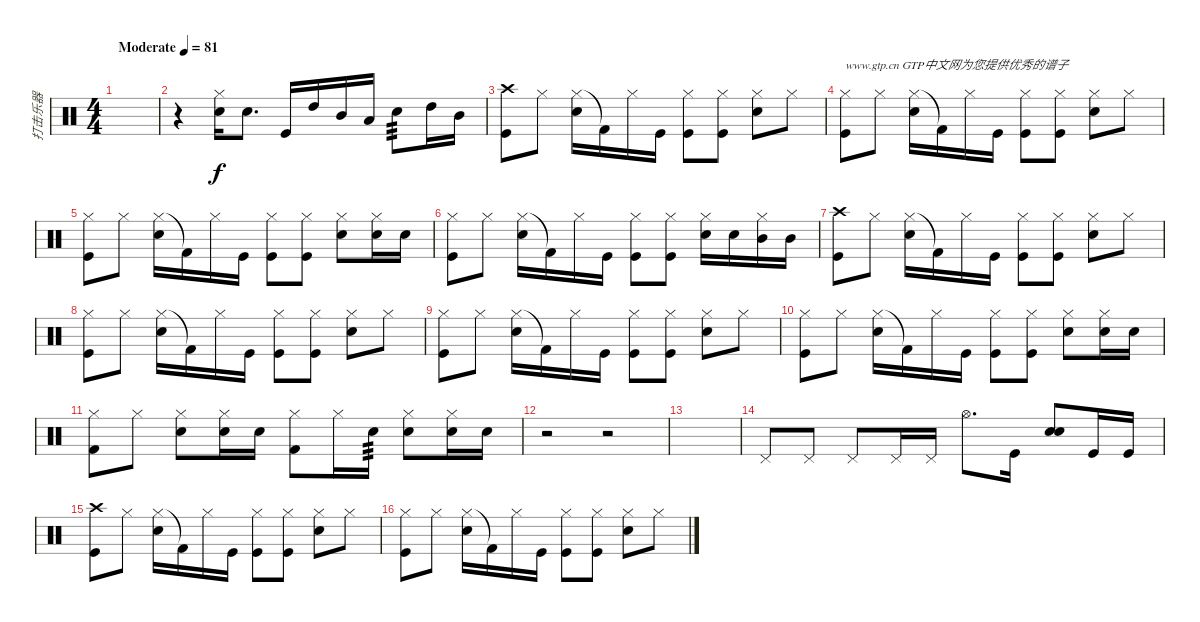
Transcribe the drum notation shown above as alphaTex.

\track ("打击乐器" "打击乐器") {instrument percussion}
\staff {score}
\articulation defaults
\ts (4 4)
\tempo (81 "Moderate")
\clef neutral
\ks c
|
r.4 ("Hi-Hat (closed)" "Electric Snare (hit)").16 "Electric Snare (hit)".8{d} "Kick (hit)".16 "High Tom (hit)".16 "Mid Tom (hit)".16 "Low Tom (hit)".16 "Electric Snare (hit)".8{tp 3} "High Tom (hit)".16 "Mid Tom (hit)".16 |
("Crash high (hit)" "Kick (hit)").8 "Hi-Hat (closed)".8 ("Hi-Hat (closed)" "Electric Snare (hit)").16 "Kick (hit) 2"{t}.16 "Hi-Hat (closed)".16 "Kick (hit)".16 ("Hi-Hat (closed)" "Kick (hit)").8 ("Hi-Hat (closed)" "Kick (hit)").8 ("Hi-Hat (closed)" "Electric Snare (hit)").8 "Hi-Hat (closed)".8 |
("Hi-Hat (closed)" "Kick (hit)").8{txt "www.gtp.cn GTP中文网为您提供优秀的谱子"} "Hi-Hat (closed)".8 ("Hi-Hat (closed)" "Electric Snare (hit)").16 "Kick (hit) 2"{t}.16 "Hi-Hat (closed)".16 "Kick (hit)".16 ("Hi-Hat (closed)" "Kick (hit)").8 ("Hi-Hat (closed)" "Kick (hit)").8 ("Hi-Hat (closed)" "Electric Snare (hit)").8 "Hi-Hat (closed)".8 |
("Hi-Hat (closed)" "Kick (hit)").8 "Hi-Hat (closed)".8 ("Hi-Hat (closed)" "Electric Snare (hit)").16 "Kick (hit) 2"{t}.16 "Hi-Hat (closed)".16 "Kick (hit)".16 ("Hi-Hat (closed)" "Kick (hit)").8 ("Hi-Hat (closed)" "Kick (hit)").8 ("Hi-Hat (closed)" "Electric Snare (hit)").8 ("Hi-Hat (closed)" "Electric Snare (hit)").16 "Electric Snare (hit)".16 |
("Hi-Hat (closed)" "Kick (hit)").8 "Hi-Hat (closed)".8 ("Hi-Hat (closed)" "Electric Snare (hit)").16 "Kick (hit) 2"{t}.16 "Hi-Hat (closed)".16 "Kick (hit)".16 ("Hi-Hat (closed)" "Kick (hit)").8 ("Hi-Hat (closed)" "Kick (hit)").8 ("Hi-Hat (closed)" "Electric Snare (hit)").16 "Electric Snare (hit)".16 ("Hi-Hat (closed)" "Mid Tom (hit)").16 "Mid Tom (hit)".16 |
("Crash high (hit)" "Kick (hit)").8 "Hi-Hat (closed)".8 ("Hi-Hat (closed)" "Electric Snare (hit)").16 "Kick (hit) 2"{t}.16 "Hi-Hat (closed)".16 "Kick (hit)".16 ("Hi-Hat (closed)" "Kick (hit)").8 ("Hi-Hat (closed)" "Kick (hit)").8 ("Hi-Hat (closed)" "Electric Snare (hit)").8 "Hi-Hat (closed)".8 |
("Hi-Hat (closed)" "Kick (hit)").8 "Hi-Hat (closed)".8 ("Hi-Hat (closed)" "Electric Snare (hit)").16 "Kick (hit) 2"{t}.16 "Hi-Hat (closed)".16 "Kick (hit)".16 ("Hi-Hat (closed)" "Kick (hit)").8 ("Hi-Hat (closed)" "Kick (hit)").8 ("Hi-Hat (closed)" "Electric Snare (hit)").8 "Hi-Hat (closed)".8 |
("Hi-Hat (closed)" "Kick (hit)").8 "Hi-Hat (closed)".8 ("Hi-Hat (closed)" "Electric Snare (hit)").16 "Kick (hit) 2"{t}.16 "Hi-Hat (closed)".16 "Kick (hit)".16 ("Hi-Hat (closed)" "Kick (hit)").8 ("Hi-Hat (closed)" "Kick (hit)").8 ("Hi-Hat (closed)" "Electric Snare (hit)").8 "Hi-Hat (closed)".8 |
("Hi-Hat (closed)" "Kick (hit)").8 "Hi-Hat (closed)".8 ("Hi-Hat (closed)" "Electric Snare (hit)").16 "Kick (hit) 2"{t}.16 "Hi-Hat (closed)".16 "Kick (hit)".16 ("Hi-Hat (closed)" "Kick (hit)").8 ("Hi-Hat (closed)" "Kick (hit)").8 ("Hi-Hat (closed)" "Electric Snare (hit)").8 ("Hi-Hat (closed)" "Electric Snare (hit)").16 "Electric Snare (hit)".16 |
("Hi-Hat (closed)" "Kick (hit) 2").8 "Hi-Hat (closed)".8 ("Hi-Hat (closed)" "Electric Snare (hit)").8 ("Hi-Hat (closed)" "Electric Snare (hit)").16 "Electric Snare (hit)".16 ("Hi-Hat (closed)" "Kick (hit) 2").8 "Hi-Hat (closed)".16 "Electric Snare (hit)".16{tp 3} ("Hi-Hat (closed)" "Electric Snare (hit)").8 ("Hi-Hat (closed)" "Electric Snare (hit)").16 "Electric Snare (hit)".16 |
r.2 r.2 |
|
"Pedal Hi-Hat (hit)".8 "Pedal Hi-Hat (hit)".8 "Pedal Hi-Hat (hit)".8 "Pedal Hi-Hat (hit)".16 "Pedal Hi-Hat (hit)".16 "Hi-Hat (open)".8{d} "Kick (hit)".16 ("Electric Snare (hit)" "Snare (hit) 2").8 "Kick (hit)".16 "Kick (hit)".16 |
("Crash high (hit)" "Kick (hit)").8 "Hi-Hat (closed)".8 ("Hi-Hat (closed)" "Electric Snare (hit)").16 "Kick (hit) 2"{t}.16 "Hi-Hat (closed)".16 "Kick (hit)".16 ("Hi-Hat (closed)" "Kick (hit)").8 ("Hi-Hat (closed)" "Kick (hit)").8 ("Hi-Hat (closed)" "Electric Snare (hit)").8 "Hi-Hat (closed)".8 |
("Hi-Hat (closed)" "Kick (hit)").8 "Hi-Hat (closed)".8 ("Hi-Hat (closed)" "Electric Snare (hit)").16 "Kick (hit) 2"{t}.16 "Hi-Hat (closed)".16 "Kick (hit)".16 ("Hi-Hat (closed)" "Kick (hit)").8 ("Hi-Hat (closed)" "Kick (hit)").8 ("Hi-Hat (closed)" "Electric Snare (hit)").8 "Hi-Hat (closed)".8
